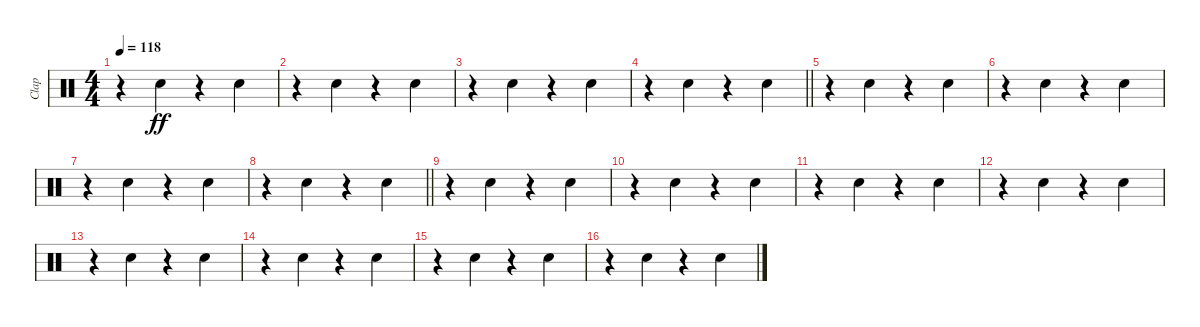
\track ("Clap" "Clap") {instrument percussion}
\staff {score}
\articulation defaults
\ts (4 4)
\tempo 118
\clef neutral
\ks c
r.4{dy ff} "Hand Clap (hit)".4 r.4 "Hand Clap (hit)".4 |
r.4 "Hand Clap (hit)".4 r.4 "Hand Clap (hit)".4 |
r.4 "Hand Clap (hit)".4 r.4 "Hand Clap (hit)".4 |
\barLineRight lightlight
r.4 "Hand Clap (hit)".4 r.4 "Hand Clap (hit)".4 |
r.4 "Hand Clap (hit)".4 r.4 "Hand Clap (hit)".4 |
r.4 "Hand Clap (hit)".4 r.4 "Hand Clap (hit)".4 |
r.4 "Hand Clap (hit)".4 r.4 "Hand Clap (hit)".4 |
\barLineRight lightlight
r.4 "Hand Clap (hit)".4 r.4 "Hand Clap (hit)".4 |
r.4 "Hand Clap (hit)".4 r.4 "Hand Clap (hit)".4 |
r.4 "Hand Clap (hit)".4 r.4 "Hand Clap (hit)".4 |
r.4 "Hand Clap (hit)".4 r.4 "Hand Clap (hit)".4 |
r.4 "Hand Clap (hit)".4 r.4 "Hand Clap (hit)".4 |
r.4 "Hand Clap (hit)".4 r.4 "Hand Clap (hit)".4 |
r.4 "Hand Clap (hit)".4 r.4 "Hand Clap (hit)".4 |
r.4 "Hand Clap (hit)".4 r.4 "Hand Clap (hit)".4 |
r.4 "Hand Clap (hit)".4 r.4 "Hand Clap (hit)".4
